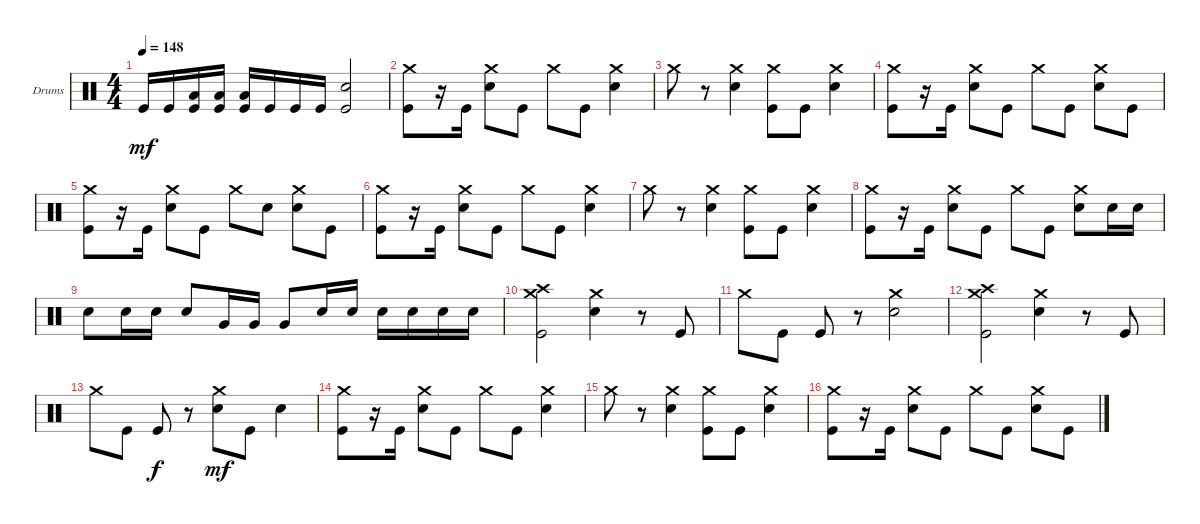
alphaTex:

\bracketExtendMode groupsimilarinstruments
\firstSystemTrackNameOrientation horizontal
\otherSystemsTrackNameOrientation horizontal
\track ("Drumkit" "Drums") {instrument percussion}
\staff {score}
\articulation defaults
\ts (4 4)
\tempo 148
\clef neutral
\scale
0.333333
\ks c "Kick (hit)".16{dy mf} "Kick (hit)".16
("Kick (hit)" "Low Tom (hit)").16 ("Kick (hit)" "Low Tom (hit)").16 ("Kick (hit)" "Low Tom (hit)").16 "Kick (hit)".16 "Kick (hit)".16 "Kick (hit)".16 ("Snare (hit) 2" "Kick (hit)").2 |
\scale
0.333333 ("Kick (hit)" "Crash medium (hit)").8 r.16 "Kick (hit)".16 ("Snare (hit) 2" "Crash medium (hit)").8 "Kick (hit)".8 "Crash medium (hit)".8 "Kick (hit)".8 ("Snare (hit) 2" "Crash medium (hit)").4 |
\scale
0.333333 "Crash medium (hit)".8 r.8 ("Snare (hit) 2" "Crash medium (hit)").4 ("Kick (hit)" "Crash medium (hit)").8 "Kick (hit)".8 ("Snare (hit) 2" "Crash medium (hit)").4 |
\scale
0.333333 ("Kick (hit)" "Crash medium (hit)").8 r.16 "Kick (hit)".16 ("Snare (hit) 2" "Crash medium (hit)").8 "Kick (hit)".8 "Crash medium (hit)".8 "Kick (hit)".8 ("Snare (hit) 2" "Crash medium (hit)").8 "Kick (hit)".8 |
\scale
0.333333 ("Kick (hit)" "Crash medium (hit)").8 r.16 "Kick (hit)".16 ("Snare (hit) 2" "Crash medium (hit)").8 "Kick (hit)".8 "Crash medium (hit)".8 "Snare (hit) 2".8 ("Snare (hit) 2" "Crash medium (hit)").8 "Kick (hit)".8 |
\scale
0.333333 ("Kick (hit)" "Crash medium (hit)").8 r.16 "Kick (hit)".16 ("Snare (hit) 2" "Crash medium (hit)").8 "Kick (hit)".8 "Crash medium (hit)".8 "Kick (hit)".8 ("Snare (hit) 2" "Crash medium (hit)").4 |
\scale
0.333333 "Crash medium (hit)".8 r.8 ("Snare (hit) 2" "Crash medium (hit)").4 ("Kick (hit)" "Crash medium (hit)").8 "Kick (hit)".8 ("Snare (hit) 2" "Crash medium (hit)").4 |
\scale
0.333333 ("Kick (hit)" "Crash medium (hit)").8 r.16 "Kick (hit)".16 ("Snare (hit) 2" "Crash medium (hit)").8 "Kick (hit)".8 "Crash medium (hit)".8 "Kick (hit)".8 ("Snare (hit) 2" "Crash medium (hit)").8 "Snare (hit) 2".16 "Snare (hit) 2".16 |
\scale
0.333333 "Snare (hit) 2".8 "Snare (hit) 2".16 "Snare (hit) 2".16 "Snare (hit) 2".8 "Very Low Tom (hit)".16 "Very Low Tom (hit)".16 "Very Low Tom (hit)".8 "Snare (hit) 2".16 "Snare (hit) 2".16 "Snare (hit) 2".16 "Snare (hit) 2".16 "Snare (hit) 2".16 "Snare (hit) 2".16 |
\scale
0.333333 ("Kick (hit)" "Crash high (hit)" "Crash medium (hit)").2 ("Snare (hit) 2" "Crash medium (hit)").4 r.8 "Kick (hit)".8 |
"Crash medium (hit)".8 "Kick (hit)".8 "Kick (hit)".8 r.8 ("Snare (hit) 2" "Crash medium (hit)").2 |
\scale
0.333333 ("Kick (hit)" "Crash high (hit)" "Crash medium (hit)").2 ("Snare (hit) 2" "Crash medium (hit)").4 r.8 "Kick (hit)".8 |
\scale
0.333333 "Crash medium (hit)".8 "Kick (hit)".8 "Kick (hit)".8{dy f} r.8 ("Snare (hit) 2" "Crash medium (hit)").8{dy mf} "Kick (hit)".8 "Snare (hit) 2".4 |
\scale
0.333333 ("Kick (hit)" "Crash medium (hit)").8 r.16 "Kick (hit)".16 ("Snare (hit) 2" "Crash medium (hit)").8 "Kick (hit)".8 "Crash medium (hit)".8 "Kick (hit)".8 ("Snare (hit) 2" "Crash medium (hit)").4 |
\scale
0.333333 "Crash medium (hit)".8 r.8 ("Snare (hit) 2" "Crash medium (hit)").4 ("Kick (hit)" "Crash medium (hit)").8 "Kick (hit)".8 ("Snare (hit) 2" "Crash medium (hit)").4 |
\scale
0.333333 ("Kick (hit)" "Crash medium (hit)").8 r.16 "Kick (hit)".16 ("Snare (hit) 2" "Crash medium (hit)").8 "Kick (hit)".8 "Crash medium (hit)".8 "Kick (hit)".8 ("Snare (hit) 2" "Crash medium (hit)").8 "Kick (hit)".8
